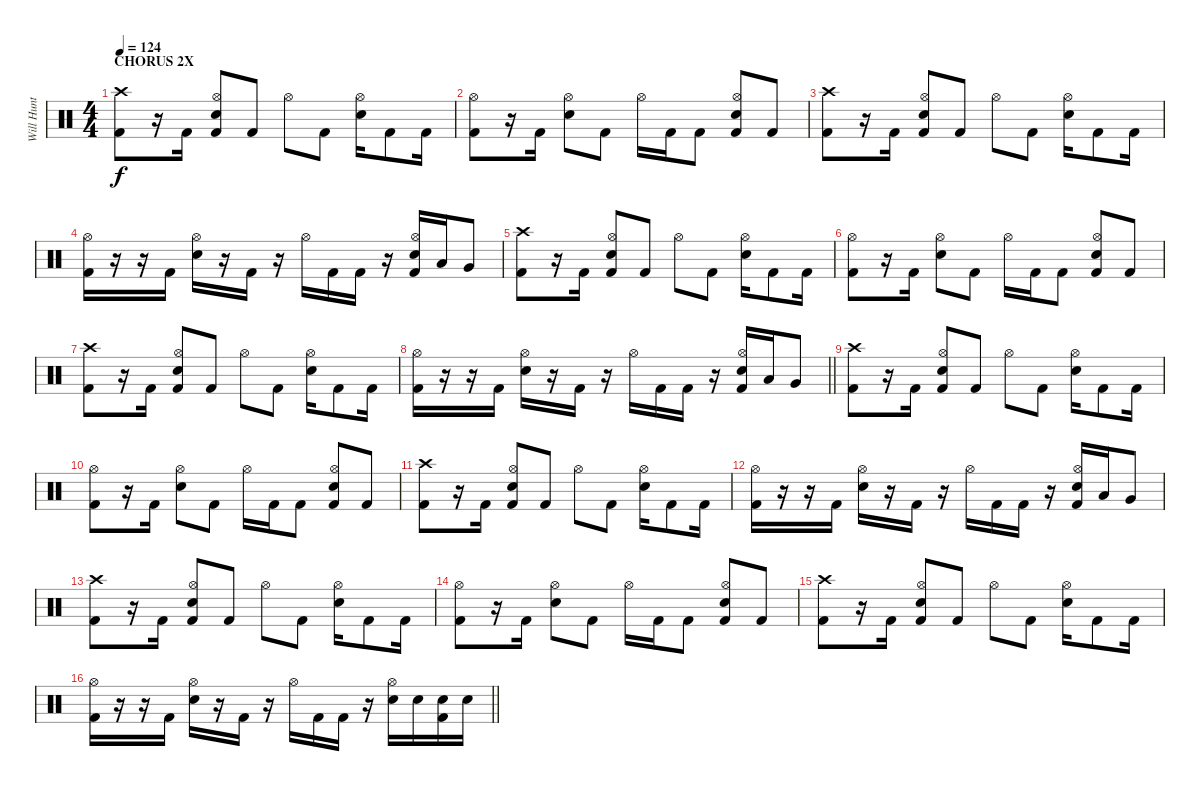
\track ("Will Hunt - drums" "Will Hunt ") {instrument percussion}
\staff {score}
\articulation defaults
\ts (4 4)
\section ("" "CHORUS 2X")
\tempo 124
\clef neutral
\ks c
("Crash high (hit)" "Kick (hit) 2").8{dy f} r.16 "Kick (hit) 2".16 ("Hi-Hat (open)" "Snare (hit) 2" "Kick (hit) 2").8 "Kick (hit) 2".8 "Hi-Hat (open)".8 "Kick (hit) 2".8 ("Hi-Hat (open)" "Snare (hit) 2").16 "Kick (hit) 2".8 "Kick (hit) 2".16 |
("Hi-Hat (open)" "Kick (hit) 2").8 r.16 "Kick (hit) 2".16 ("Hi-Hat (open)" "Snare (hit) 2").8 "Kick (hit) 2".8 "Hi-Hat (open)".16 "Kick (hit) 2".16 "Kick (hit) 2".8 ("Hi-Hat (open)" "Snare (hit) 2" "Kick (hit) 2").8 "Kick (hit) 2".8 |
("Crash high (hit)" "Kick (hit) 2").8 r.16 "Kick (hit) 2".16 ("Hi-Hat (open)" "Snare (hit) 2" "Kick (hit) 2").8 "Kick (hit) 2".8 "Hi-Hat (open)".8 "Kick (hit) 2".8 ("Hi-Hat (open)" "Snare (hit) 2").16 "Kick (hit) 2".8 "Kick (hit) 2".16 |
("Hi-Hat (open)" "Kick (hit) 2").16 r.16 r.16 "Kick (hit) 2".16 ("Hi-Hat (open)" "Snare (hit) 2").16 r.16 "Kick (hit) 2".16 r.16 "Hi-Hat (open)".16 "Kick (hit) 2".16 "Kick (hit) 2".16 r.16 ("Hi-Hat (open)" "Snare (hit) 2" "Kick (hit) 2").16 "Low Tom (hit)".16 "Very Low Tom (hit)".8 |
("Crash high (hit)" "Kick (hit) 2").8 r.16 "Kick (hit) 2".16 ("Hi-Hat (open)" "Snare (hit) 2" "Kick (hit) 2").8 "Kick (hit) 2".8 "Hi-Hat (open)".8 "Kick (hit) 2".8 ("Hi-Hat (open)" "Snare (hit) 2").16 "Kick (hit) 2".8 "Kick (hit) 2".16 |
("Hi-Hat (open)" "Kick (hit) 2").8 r.16 "Kick (hit) 2".16 ("Hi-Hat (open)" "Snare (hit) 2").8 "Kick (hit) 2".8 "Hi-Hat (open)".16 "Kick (hit) 2".16 "Kick (hit) 2".8 ("Hi-Hat (open)" "Snare (hit) 2" "Kick (hit) 2").8 "Kick (hit) 2".8 |
("Crash high (hit)" "Kick (hit) 2").8 r.16 "Kick (hit) 2".16 ("Hi-Hat (open)" "Snare (hit) 2" "Kick (hit) 2").8 "Kick (hit) 2".8 "Hi-Hat (open)".8 "Kick (hit) 2".8 ("Hi-Hat (open)" "Snare (hit) 2").16 "Kick (hit) 2".8 "Kick (hit) 2".16 |
\barLineRight lightlight
("Hi-Hat (open)" "Kick (hit) 2").16 r.16 r.16 "Kick (hit) 2".16 ("Hi-Hat (open)" "Snare (hit) 2").16 r.16 "Kick (hit) 2".16 r.16 "Hi-Hat (open)".16 "Kick (hit) 2".16 "Kick (hit) 2".16 r.16 ("Hi-Hat (open)" "Snare (hit) 2" "Kick (hit) 2").16 "Low Tom (hit)".16 "Very Low Tom (hit)".8 |
("Crash high (hit)" "Kick (hit) 2").8 r.16 "Kick (hit) 2".16 ("Hi-Hat (open)" "Snare (hit) 2" "Kick (hit) 2").8 "Kick (hit) 2".8 "Hi-Hat (open)".8 "Kick (hit) 2".8 ("Hi-Hat (open)" "Snare (hit) 2").16 "Kick (hit) 2".8 "Kick (hit) 2".16 |
("Hi-Hat (open)" "Kick (hit) 2").8 r.16 "Kick (hit) 2".16 ("Hi-Hat (open)" "Snare (hit) 2").8 "Kick (hit) 2".8 "Hi-Hat (open)".16 "Kick (hit) 2".16 "Kick (hit) 2".8 ("Hi-Hat (open)" "Snare (hit) 2" "Kick (hit) 2").8 "Kick (hit) 2".8 |
("Crash high (hit)" "Kick (hit) 2").8 r.16 "Kick (hit) 2".16 ("Hi-Hat (open)" "Snare (hit) 2" "Kick (hit) 2").8 "Kick (hit) 2".8 "Hi-Hat (open)".8 "Kick (hit) 2".8 ("Hi-Hat (open)" "Snare (hit) 2").16 "Kick (hit) 2".8 "Kick (hit) 2".16 |
("Hi-Hat (open)" "Kick (hit) 2").16 r.16 r.16 "Kick (hit) 2".16 ("Hi-Hat (open)" "Snare (hit) 2").16 r.16 "Kick (hit) 2".16 r.16 "Hi-Hat (open)".16 "Kick (hit) 2".16 "Kick (hit) 2".16 r.16 ("Hi-Hat (open)" "Snare (hit) 2" "Kick (hit) 2").16 "Low Tom (hit)".16 "Very Low Tom (hit)".8 |
("Crash high (hit)" "Kick (hit) 2").8 r.16 "Kick (hit) 2".16 ("Hi-Hat (open)" "Snare (hit) 2" "Kick (hit) 2").8 "Kick (hit) 2".8 "Hi-Hat (open)".8 "Kick (hit) 2".8 ("Hi-Hat (open)" "Snare (hit) 2").16 "Kick (hit) 2".8 "Kick (hit) 2".16 |
("Hi-Hat (open)" "Kick (hit) 2").8 r.16 "Kick (hit) 2".16 ("Hi-Hat (open)" "Snare (hit) 2").8 "Kick (hit) 2".8 "Hi-Hat (open)".16 "Kick (hit) 2".16 "Kick (hit) 2".8 ("Hi-Hat (open)" "Snare (hit) 2" "Kick (hit) 2").8 "Kick (hit) 2".8 |
("Crash high (hit)" "Kick (hit) 2").8 r.16 "Kick (hit) 2".16 ("Hi-Hat (open)" "Snare (hit) 2" "Kick (hit) 2").8 "Kick (hit) 2".8 "Hi-Hat (open)".8 "Kick (hit) 2".8 ("Hi-Hat (open)" "Snare (hit) 2").16 "Kick (hit) 2".8 "Kick (hit) 2".16 |
\barLineRight lightlight
("Hi-Hat (open)" "Kick (hit) 2").16 r.16 r.16 "Kick (hit) 2".16 ("Hi-Hat (open)" "Snare (hit) 2").16 r.16 "Kick (hit) 2".16 r.16 "Hi-Hat (open)".16 "Kick (hit) 2".16 "Kick (hit) 2".16 r.16 ("Hi-Hat (open)" "Snare (hit) 2").16 "Snare (hit) 2".16 ("Snare (hit) 2" "Kick (hit) 2").16 "Snare (hit) 2".16
